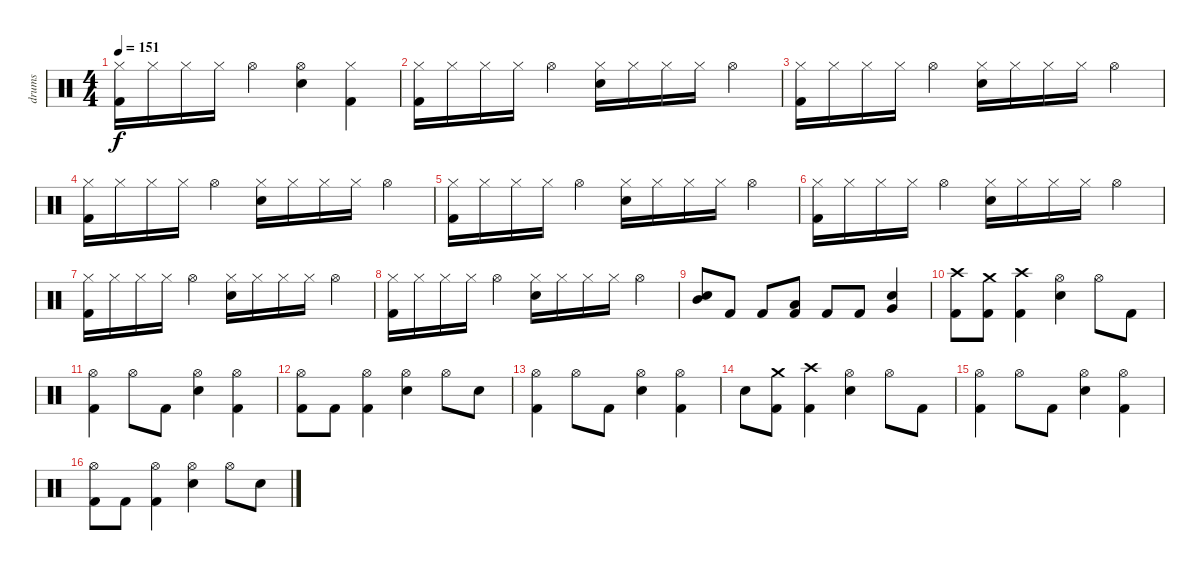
\track ("drums" "drums") {instrument percussion}
\staff {score}
\articulation defaults
\ts (4 4)
\tempo 151
\clef neutral
\ks c
("Hi-Hat (closed)" "Kick (hit) 2").16{dy f} "Hi-Hat (closed)".16 "Hi-Hat (closed)".16 "Hi-Hat (closed)".16 "Hi-Hat (open)".4 ("Hi-Hat (open)" "Electric Snare (hit)").4 ("Hi-Hat (closed)" "Kick (hit) 2").4 |
("Hi-Hat (closed)" "Kick (hit) 2").16 "Hi-Hat (closed)".16 "Hi-Hat (closed)".16 "Hi-Hat (closed)".16 "Hi-Hat (open)".4 ("Hi-Hat (closed)" "Electric Snare (hit)").16 "Hi-Hat (closed)".16 "Hi-Hat (closed)".16 "Hi-Hat (closed)".16 "Hi-Hat (open)".4 |
("Hi-Hat (closed)" "Kick (hit) 2").16 "Hi-Hat (closed)".16 "Hi-Hat (closed)".16 "Hi-Hat (closed)".16 "Hi-Hat (open)".4 ("Hi-Hat (closed)" "Electric Snare (hit)").16 "Hi-Hat (closed)".16 "Hi-Hat (closed)".16 "Hi-Hat (closed)".16 "Hi-Hat (open)".4 |
("Hi-Hat (closed)" "Kick (hit) 2").16 "Hi-Hat (closed)".16 "Hi-Hat (closed)".16 "Hi-Hat (closed)".16 "Hi-Hat (open)".4 ("Hi-Hat (closed)" "Electric Snare (hit)").16 "Hi-Hat (closed)".16 "Hi-Hat (closed)".16 "Hi-Hat (closed)".16 "Hi-Hat (open)".4 |
("Hi-Hat (closed)" "Kick (hit) 2").16 "Hi-Hat (closed)".16 "Hi-Hat (closed)".16 "Hi-Hat (closed)".16 "Hi-Hat (open)".4 ("Hi-Hat (closed)" "Electric Snare (hit)").16 "Hi-Hat (closed)".16 "Hi-Hat (closed)".16 "Hi-Hat (closed)".16 "Hi-Hat (open)".4 |
("Hi-Hat (closed)" "Kick (hit) 2").16 "Hi-Hat (closed)".16 "Hi-Hat (closed)".16 "Hi-Hat (closed)".16 "Hi-Hat (open)".4 ("Hi-Hat (closed)" "Electric Snare (hit)").16 "Hi-Hat (closed)".16 "Hi-Hat (closed)".16 "Hi-Hat (closed)".16 "Hi-Hat (open)".4 |
("Hi-Hat (closed)" "Kick (hit) 2").16 "Hi-Hat (closed)".16 "Hi-Hat (closed)".16 "Hi-Hat (closed)".16 "Hi-Hat (open)".4 ("Hi-Hat (closed)" "Electric Snare (hit)").16 "Hi-Hat (closed)".16 "Hi-Hat (closed)".16 "Hi-Hat (closed)".16 "Hi-Hat (open)".4 |
("Hi-Hat (closed)" "Kick (hit) 2").16 "Hi-Hat (closed)".16 "Hi-Hat (closed)".16 "Hi-Hat (closed)".16 "Hi-Hat (open)".4 ("Hi-Hat (closed)" "Electric Snare (hit)").16 "Hi-Hat (closed)".16 "Hi-Hat (closed)".16 "Hi-Hat (closed)".16 "Hi-Hat (open)".4 |
("Mid Tom (hit)" "Electric Snare (hit)").8 "Kick (hit) 2".8 "Kick (hit) 2".8 ("Low Tom (hit)" "Kick (hit) 2").8 "Kick (hit) 2".8 "Kick (hit) 2".8 ("Very Low Tom (hit)" "Electric Snare (hit)").4 |
("Crash high (hit)" "Kick (hit) 2").8 ("Crash medium (hit)" "Kick (hit) 2").8 ("Crash high (hit)" "Kick (hit) 2").4 ("Hi-Hat (open)" "Electric Snare (hit)").4 "Hi-Hat (open)".8 "Kick (hit) 2".8 |
("Hi-Hat (open)" "Kick (hit) 2").4 "Hi-Hat (open)".8 "Kick (hit) 2".8 ("Hi-Hat (open)" "Electric Snare (hit)").4 ("Hi-Hat (open)" "Kick (hit) 2").4 |
("Hi-Hat (open)" "Kick (hit) 2").8 "Kick (hit) 2".8 ("Hi-Hat (open)" "Kick (hit) 2").4 ("Hi-Hat (open)" "Electric Snare (hit)").4 "Hi-Hat (open)".8 "Electric Snare (hit)".8 |
("Hi-Hat (open)" "Kick (hit) 2").4 "Hi-Hat (open)".8 "Kick (hit) 2".8 ("Hi-Hat (open)" "Electric Snare (hit)").4 ("Hi-Hat (open)" "Kick (hit) 2").4 |
"Electric Snare (hit)".8 ("Crash medium (hit)" "Kick (hit) 2").8 ("Crash high (hit)" "Kick (hit) 2").4 ("Hi-Hat (open)" "Electric Snare (hit)").4 "Hi-Hat (open)".8 "Kick (hit) 2".8 |
("Hi-Hat (open)" "Kick (hit) 2").4 "Hi-Hat (open)".8 "Kick (hit) 2".8 ("Hi-Hat (open)" "Electric Snare (hit)").4 ("Hi-Hat (open)" "Kick (hit) 2").4 |
("Hi-Hat (open)" "Kick (hit) 2").8 "Kick (hit) 2".8 ("Hi-Hat (open)" "Kick (hit) 2").4 ("Hi-Hat (open)" "Electric Snare (hit)").4 "Hi-Hat (open)".8 "Electric Snare (hit)".8
